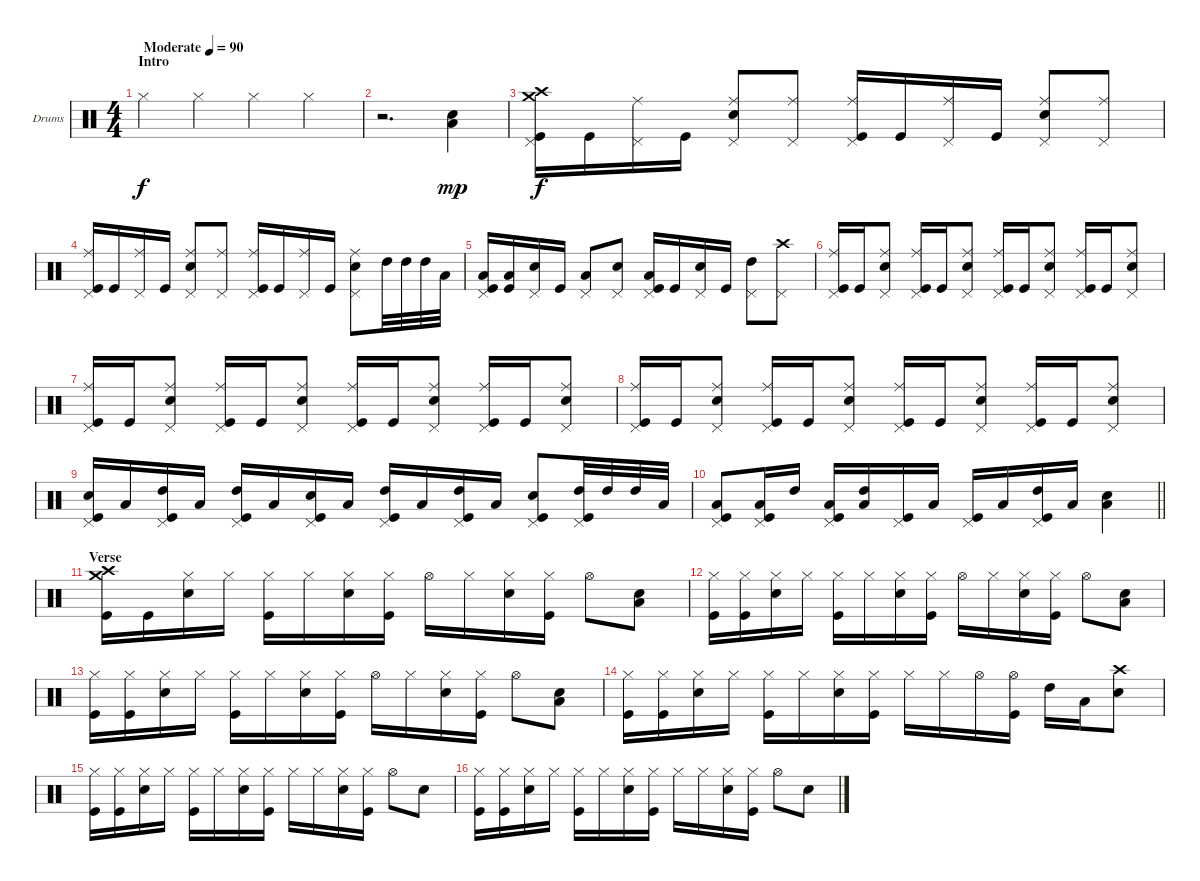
\bracketExtendMode groupsimilarinstruments
\firstSystemTrackNameOrientation horizontal
\otherSystemsTrackNameOrientation horizontal
\track ("Rian Dawson" "Drums") {instrument percussion}
\staff {score}
\articulation defaults
\ts (4 4)
\beaming (8 2 2 2 2)
\section ("" "Intro")
\tempo (90 "Moderate")
\clef neutral
\scale
0.474178
\ks c "Hi-Hat (closed)".4{dy f} "Hi-Hat (closed)".4 "Hi-Hat (closed)".4 "Hi-Hat (closed)".4
|
\scale
0.262911 r.2{d} ("Low Tom (hit)" "Snare (hit) 2").4{dy mp} |
\scale
0.262911 ("Crash high (hit)" "Crash medium (hit)" "Pedal Hi-Hat (hit)" "Kick (hit)").16{dy f} "Kick (hit)".16 ("Ride (middle)" "Pedal Hi-Hat (hit)").16 "Kick (hit)".16 ("Ride (middle)" "Pedal Hi-Hat (hit)" "Snare (hit) 2").8 ("Ride (middle)" "Pedal Hi-Hat (hit)").8 ("Ride (middle)" "Pedal Hi-Hat (hit)" "Kick (hit)").16 "Kick (hit)".16 ("Ride (middle)" "Pedal Hi-Hat (hit)").16 "Kick (hit)".16 ("Ride (middle)" "Pedal Hi-Hat (hit)" "Snare (hit) 2").8 ("Ride (middle)" "Pedal Hi-Hat (hit)").8 |
\scale
0.333333 ("Ride (middle)" "Pedal Hi-Hat (hit)" "Kick (hit)").16 "Kick (hit)".16 ("Ride (middle)" "Pedal Hi-Hat (hit)").16 "Kick (hit)".16 ("Ride (middle)" "Pedal Hi-Hat (hit)" "Snare (hit) 2").8 ("Ride (middle)" "Pedal Hi-Hat (hit)").8 ("Ride (middle)" "Pedal Hi-Hat (hit)" "Kick (hit)").16 "Kick (hit)".16 ("Ride (middle)" "Pedal Hi-Hat (hit)").16 "Kick (hit)".16 ("Ride (middle)" "Pedal Hi-Hat (hit)" "Snare (hit) 2").8 "High Tom (hit)".32 "High Tom (hit)".32 "High Tom (hit)".32 "Low Tom (hit)".32 |
\scale
0.333333 ("Pedal Hi-Hat (hit)" "Low Tom (hit)" "Kick (hit)").16 ("Low Tom (hit)" "Kick (hit)").16 ("Pedal Hi-Hat (hit)" "Snare (hit) 2").16 "Kick (hit)".16 ("Pedal Hi-Hat (hit)" "Low Tom (hit)").8 ("Pedal Hi-Hat (hit)" "Snare (hit) 2").8 ("Pedal Hi-Hat (hit)" "Low Tom (hit)" "Kick (hit)").16 "Kick (hit)".16 ("Pedal Hi-Hat (hit)" "Snare (hit) 2").16 "Kick (hit)".16 ("Pedal Hi-Hat (hit)" "High Tom (hit)").8 ("Crash high (hit)" "Pedal Hi-Hat (hit)").8 |
\scale
0.333333 ("Ride (middle)" "Pedal Hi-Hat (hit)" "Kick (hit)").16 "Kick (hit)".16 ("Ride (middle)" "Pedal Hi-Hat (hit)" "Snare (hit) 2").8 ("Ride (middle)" "Pedal Hi-Hat (hit)" "Kick (hit)").16 "Kick (hit)".16 ("Ride (middle)" "Pedal Hi-Hat (hit)" "Snare (hit) 2").8 ("Ride (middle)" "Pedal Hi-Hat (hit)" "Kick (hit)").16 "Kick (hit)".16 ("Ride (middle)" "Pedal Hi-Hat (hit)" "Snare (hit) 2").8 ("Ride (middle)" "Pedal Hi-Hat (hit)" "Kick (hit)").16 "Kick (hit)".16 ("Ride (middle)" "Pedal Hi-Hat (hit)" "Snare (hit) 2").8 |
\scale
0.333333 ("Ride (middle)" "Pedal Hi-Hat (hit)" "Kick (hit)").16 "Kick (hit)".16 ("Ride (middle)" "Pedal Hi-Hat (hit)" "Snare (hit) 2").8 ("Ride (middle)" "Pedal Hi-Hat (hit)" "Kick (hit)").16 "Kick (hit)".16 ("Ride (middle)" "Pedal Hi-Hat (hit)" "Snare (hit) 2").8 ("Ride (middle)" "Pedal Hi-Hat (hit)" "Kick (hit)").16 "Kick (hit)".16 ("Ride (middle)" "Pedal Hi-Hat (hit)" "Snare (hit) 2").8 ("Ride (middle)" "Pedal Hi-Hat (hit)" "Kick (hit)").16 "Kick (hit)".16 ("Ride (middle)" "Pedal Hi-Hat (hit)" "Snare (hit) 2").8 |
\scale
0.333333 ("Ride (middle)" "Pedal Hi-Hat (hit)" "Kick (hit)").16 "Kick (hit)".16 ("Ride (middle)" "Pedal Hi-Hat (hit)" "Snare (hit) 2").8 ("Ride (middle)" "Pedal Hi-Hat (hit)" "Kick (hit)").16 "Kick (hit)".16 ("Ride (middle)" "Pedal Hi-Hat (hit)" "Snare (hit) 2").8 ("Ride (middle)" "Pedal Hi-Hat (hit)" "Kick (hit)").16 "Kick (hit)".16 ("Ride (middle)" "Pedal Hi-Hat (hit)" "Snare (hit) 2").8 ("Ride (middle)" "Pedal Hi-Hat (hit)" "Kick (hit)").16 "Kick (hit)".16 ("Ride (middle)" "Pedal Hi-Hat (hit)" "Snare (hit) 2").8 |
\scale
0.333333 ("Pedal Hi-Hat (hit)" "Snare (hit) 2" "Kick (hit)").16 "Low Tom (hit)".16 ("Pedal Hi-Hat (hit)" "High Tom (hit)" "Kick (hit)").16 "Low Tom (hit)".16 ("Pedal Hi-Hat (hit)" "High Tom (hit)" "Kick (hit)").16 "Low Tom (hit)".16 ("Pedal Hi-Hat (hit)" "Snare (hit) 2" "Kick (hit)").16 "Low Tom (hit)".16 ("Pedal Hi-Hat (hit)" "High Tom (hit)" "Kick (hit)").16 "Low Tom (hit)".16 ("Pedal Hi-Hat (hit)" "High Tom (hit)" "Kick (hit)").16 "Low Tom (hit)".16 ("Pedal Hi-Hat (hit)" "Snare (hit) 2" "Kick (hit)").8 ("Pedal Hi-Hat (hit)" "High Tom (hit)" "Kick (hit)").32 "High Tom (hit)".32 "High Tom (hit)".32 "Low Tom (hit)".32 |
\scale
0.333333
\barLineRight lightlight
("Pedal Hi-Hat (hit)" "Low Tom (hit)" "Kick (hit)").8 ("Pedal Hi-Hat (hit)" "Low Tom (hit)" "Kick (hit)").16 "High Tom (hit)".16 ("Pedal Hi-Hat (hit)" "Low Tom (hit)" "Kick (hit)").16 ("Low Tom (hit)" "High Tom (hit)").16 ("Pedal Hi-Hat (hit)" "Kick (hit)").16 "Low Tom (hit)".16 ("Pedal Hi-Hat (hit)" "Kick (hit)").16 "Low Tom (hit)".16 ("Pedal Hi-Hat (hit)" "High Tom (hit)" "Kick (hit)").16 "Low Tom (hit)".16 ("Low Tom (hit)" "Snare (hit) 2").4 |
\section ("" "Verse")
\scale
0.333333 ("Crash high (hit)" "Crash medium (hit)" "Kick (hit)").16 "Kick (hit)".16 ("Hi-Hat (closed)" "Snare (hit) 2").16 "Hi-Hat (closed)".16 ("Hi-Hat (closed)" "Kick (hit)").16 "Hi-Hat (closed)".16 ("Hi-Hat (closed)" "Snare (hit) 2").16 ("Hi-Hat (closed)" "Kick (hit)").16 "Hi-Hat (open)".16 "Hi-Hat (closed)".16 ("Hi-Hat (closed)" "Snare (hit) 2").16 ("Hi-Hat (closed)" "Kick (hit)").16 "Hi-Hat (open)".8 ("Low Tom (hit)" "Snare (hit) 2").8 |
\scale
0.333333 ("Hi-Hat (closed)" "Kick (hit)").16 ("Hi-Hat (closed)" "Kick (hit)").16 ("Hi-Hat (closed)" "Snare (hit) 2").16 "Hi-Hat (closed)".16 ("Hi-Hat (closed)" "Kick (hit)").16 "Hi-Hat (closed)".16 ("Hi-Hat (closed)" "Snare (hit) 2").16 ("Hi-Hat (closed)" "Kick (hit)").16 "Hi-Hat (open)".16 "Hi-Hat (closed)".16 ("Hi-Hat (closed)" "Snare (hit) 2").16 ("Hi-Hat (closed)" "Kick (hit)").16 "Hi-Hat (open)".8 ("Low Tom (hit)" "Snare (hit) 2").8 |
\scale
0.333333 ("Hi-Hat (closed)" "Kick (hit)").16 ("Hi-Hat (closed)" "Kick (hit)").16 ("Hi-Hat (closed)" "Snare (hit) 2").16 "Hi-Hat (closed)".16 ("Hi-Hat (closed)" "Kick (hit)").16 "Hi-Hat (closed)".16 ("Hi-Hat (closed)" "Snare (hit) 2").16 ("Hi-Hat (closed)" "Kick (hit)").16 "Hi-Hat (open)".16 "Hi-Hat (closed)".16 ("Hi-Hat (closed)" "Snare (hit) 2").16 ("Hi-Hat (closed)" "Kick (hit)").16 "Hi-Hat (open)".8 ("Low Tom (hit)" "Snare (hit) 2").8 |
\scale
0.333333 ("Hi-Hat (closed)" "Kick (hit)").16 ("Hi-Hat (closed)" "Kick (hit)").16 ("Hi-Hat (closed)" "Snare (hit) 2").16 "Hi-Hat (closed)".16 ("Hi-Hat (closed)" "Kick (hit)").16 "Hi-Hat (closed)".16 ("Hi-Hat (closed)" "Snare (hit) 2").16 ("Hi-Hat (closed)" "Kick (hit)").16 "Hi-Hat (closed)".16 "Hi-Hat (closed)".16 "Hi-Hat (open)".16 ("Hi-Hat (open)" "Kick (hit)").16 "High Tom (hit)".16 "Low Tom (hit)".16 ("Crash high (hit)" "Snare (hit) 2").8 |
\scale
0.333333 ("Hi-Hat (closed)" "Kick (hit)").16 ("Hi-Hat (closed)" "Kick (hit)").16 ("Hi-Hat (closed)" "Snare (hit) 2").16 "Hi-Hat (closed)".16 ("Hi-Hat (closed)" "Kick (hit)").16 "Hi-Hat (closed)".16 ("Hi-Hat (closed)" "Snare (hit) 2").16 ("Hi-Hat (closed)" "Kick (hit)").16 "Hi-Hat (closed)".16 "Hi-Hat (closed)".16 ("Hi-Hat (closed)" "Snare (hit) 2").16 ("Hi-Hat (closed)" "Kick (hit)").16 "Hi-Hat (open)".8 "Snare (hit) 2".8 |
\scale
0.333333 ("Hi-Hat (closed)" "Kick (hit)").16 ("Hi-Hat (closed)" "Kick (hit)").16 ("Hi-Hat (closed)" "Snare (hit) 2").16 "Hi-Hat (closed)".16 ("Hi-Hat (closed)" "Kick (hit)").16 "Hi-Hat (closed)".16 ("Hi-Hat (closed)" "Snare (hit) 2").16 ("Hi-Hat (closed)" "Kick (hit)").16 "Hi-Hat (closed)".16 "Hi-Hat (closed)".16 ("Hi-Hat (closed)" "Snare (hit) 2").16 ("Hi-Hat (closed)" "Kick (hit)").16 "Hi-Hat (open)".8 "Snare (hit) 2".8
